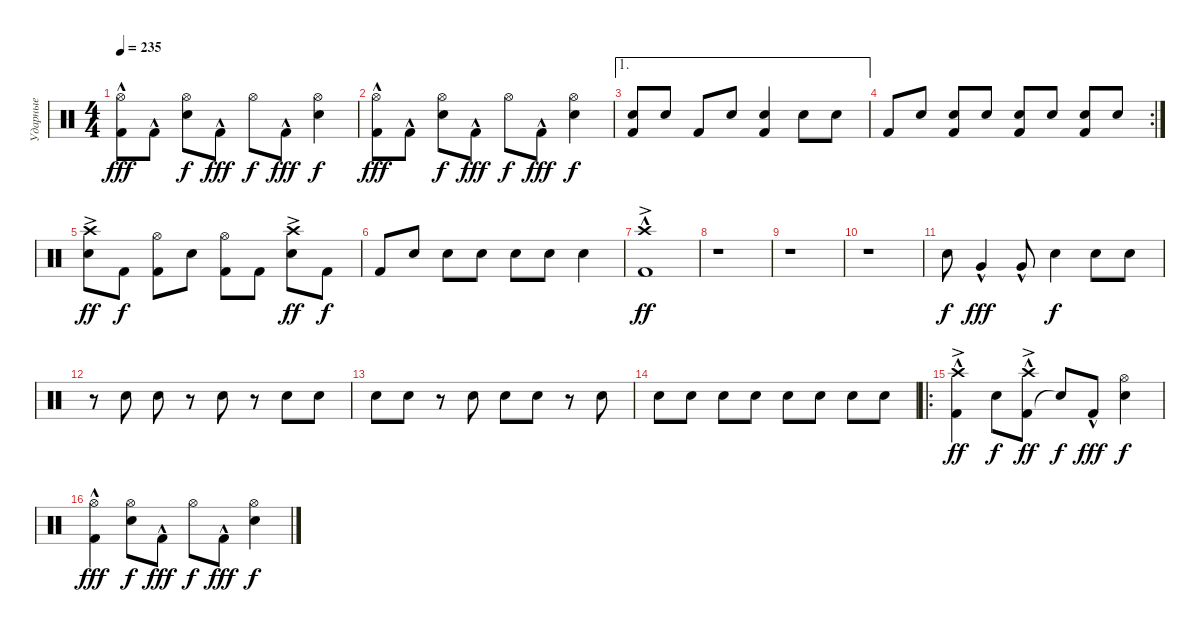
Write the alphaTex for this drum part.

\track ("Ударные" "Ударные") {instrument percussion}
\staff {score}
\articulation defaults
\ts (4 4)
\tempo 235
\clef neutral
\ks c
("Kick (hit) 2"{hac} "Hi-Hat (open)").8{dy fff} "Kick (hit) 2"{hac}.8 ("Snare (hit) 2" "Hi-Hat (open)").8{dy f} "Kick (hit) 2"{hac}.8{dy fff} "Hi-Hat (open)".8{dy f} "Kick (hit) 2"{hac}.8{dy fff} ("Snare (hit) 2" "Hi-Hat (open)").4{dy f} |
("Kick (hit) 2"{hac} "Hi-Hat (open)").8{dy fff} "Kick (hit) 2"{hac}.8 ("Snare (hit) 2" "Hi-Hat (open)").8{dy f} "Kick (hit) 2"{hac}.8{dy fff} "Hi-Hat (open)".8{dy f} "Kick (hit) 2"{hac}.8{dy fff} ("Snare (hit) 2" "Hi-Hat (open)").4{dy f} |
\ae 1
("Kick (hit) 2" "Snare (hit) 2").8 "Snare (hit) 2".8 "Kick (hit) 2".8 "Snare (hit) 2".8 ("Kick (hit) 2" "Snare (hit) 2").4 "Snare (hit) 2".8 "Snare (hit) 2".8 |
\rc 2 "Kick (hit) 2".8 "Snare (hit) 2".8
("Kick (hit) 2" "Snare (hit) 2").8 "Snare (hit) 2".8 ("Kick (hit) 2" "Snare (hit) 2").8 "Snare (hit) 2".8 ("Kick (hit) 2" "Snare (hit) 2").8 "Snare (hit) 2".8 |
("Snare (hit) 2" "Crash high (hit)"{ac}).8{dy ff} "Kick (hit) 2".8{dy f} ("Kick (hit) 2" "Hi-Hat (open)").8 "Snare (hit) 2".8 ("Kick (hit) 2" "Hi-Hat (open)").8 "Kick (hit) 2".8 ("Snare (hit) 2" "Crash high (hit)"{ac}).8{dy ff} "Kick (hit) 2".8{dy f} |
"Kick (hit) 2".8 "Snare (hit) 2".8 "Snare (hit) 2".8 "Snare (hit) 2".8 "Snare (hit) 2".8 "Snare (hit) 2".8 "Snare (hit) 2".4 |
("Kick (hit) 2"{hac} "Crash high (hit)"{ac}).1{dy ff} |
r.1 |
r.1 |
r.1 |
"Snare (hit) 2".8{dy f} "Very Low Tom (hit)"{hac}.4{dy fff} "Very Low Tom (hit)"{hac}.8 "Snare (hit) 2".4{dy f} "Snare (hit) 2".8 "Snare (hit) 2".8 |
r.8 "Snare (hit) 2".8 "Snare (hit) 2".8 r.8 "Snare (hit) 2".8 r.8 "Snare (hit) 2".8 "Snare (hit) 2".8 |
"Snare (hit) 2".8 "Snare (hit) 2".8 r.8 "Snare (hit) 2".8 "Snare (hit) 2".8 "Snare (hit) 2".8 r.8 "Snare (hit) 2".8 |
"Snare (hit) 2".8 "Snare (hit) 2".8 "Snare (hit) 2".8 "Snare (hit) 2".8 "Snare (hit) 2".8 "Snare (hit) 2".8 "Snare (hit) 2".8 "Snare (hit) 2".8 |
\ro
("Kick (hit) 2"{hac} "Crash high (hit)"{ac}).4{dy ff} "Snare (hit) 2".8{dy f} ("Kick (hit) 2"{hac} "Crash high (hit)"{ac}).8{dy ff} "Snare (hit)"{t}.8{dy f} "Kick (hit) 2"{hac}.8{dy fff} ("Snare (hit) 2" "Hi-Hat (open)").4{dy f} |
("Kick (hit) 2"{hac} "Hi-Hat (open)").4{dy fff} ("Snare (hit) 2" "Hi-Hat (open)").8{dy f} "Kick (hit) 2"{hac}.8{dy fff} "Hi-Hat (open)".8{dy f} "Kick (hit) 2"{hac}.8{dy fff} ("Snare (hit) 2" "Hi-Hat (open)").4{dy f}
